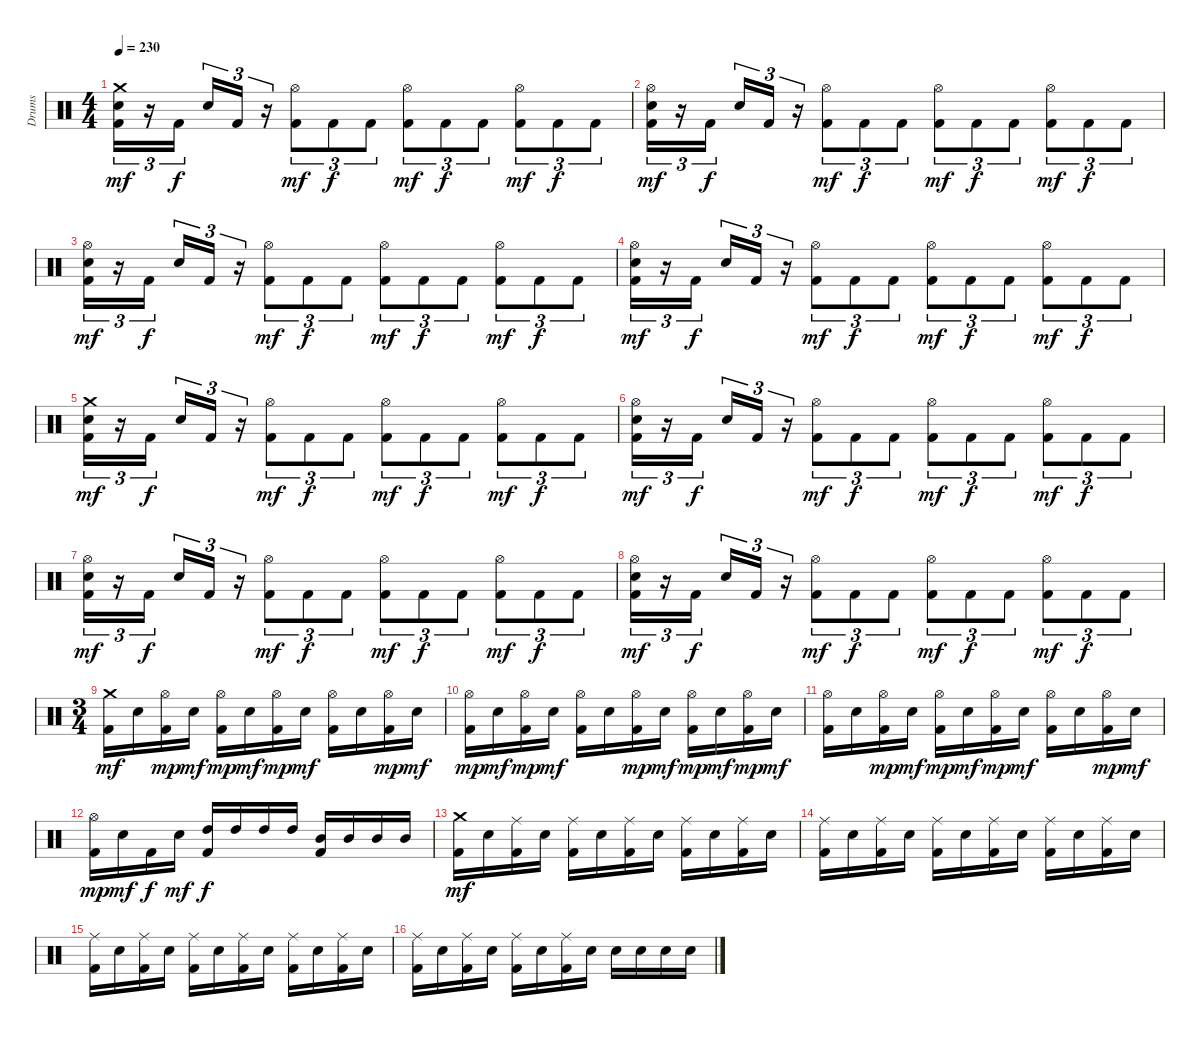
\track ("Drums" "Drums") {instrument percussion}
\staff {score}
\articulation defaults
\ts (4 4)
\tempo 230
\clef neutral
\ks c
("Crash medium (hit)" "Electric Snare (hit)" "Kick (hit) 2").16{tu (3 2) dy mf} r.16{tu (3 2)} "Kick (hit) 2".16{tu (3 2) dy f beam splitsecondary} "Electric Snare (hit)".16{tu (3 2)} "Kick (hit) 2".16{tu (3 2)} r.16{tu (3 2)} ("Hi-Hat (open)" "Kick (hit) 2").8{tu (3 2) dy mf} "Kick (hit) 2".8{tu (3 2) dy f} "Kick (hit) 2".8{tu (3 2)} ("Hi-Hat (open)" "Kick (hit) 2").8{tu (3 2) dy mf} "Kick (hit) 2".8{tu (3 2) dy f} "Kick (hit) 2".8{tu (3 2)} ("Hi-Hat (open)" "Kick (hit) 2").8{tu (3 2) dy mf} "Kick (hit) 2".8{tu (3 2) dy f} "Kick (hit) 2".8{tu (3 2)} |
("Hi-Hat (open)" "Electric Snare (hit)" "Kick (hit) 2").16{tu (3 2) dy mf} r.16{tu (3 2)} "Kick (hit) 2".16{tu (3 2) dy f beam splitsecondary} "Electric Snare (hit)".16{tu (3 2)} "Kick (hit) 2".16{tu (3 2)} r.16{tu (3 2)} ("Hi-Hat (open)" "Kick (hit) 2").8{tu (3 2) dy mf} "Kick (hit) 2".8{tu (3 2) dy f} "Kick (hit) 2".8{tu (3 2)} ("Hi-Hat (open)" "Kick (hit) 2").8{tu (3 2) dy mf} "Kick (hit) 2".8{tu (3 2) dy f} "Kick (hit) 2".8{tu (3 2)} ("Hi-Hat (open)" "Kick (hit) 2").8{tu (3 2) dy mf} "Kick (hit) 2".8{tu (3 2) dy f} "Kick (hit) 2".8{tu (3 2)} |
("Hi-Hat (open)" "Electric Snare (hit)" "Kick (hit) 2").16{tu (3 2) dy mf} r.16{tu (3 2)} "Kick (hit) 2".16{tu (3 2) dy f beam splitsecondary} "Electric Snare (hit)".16{tu (3 2)} "Kick (hit) 2".16{tu (3 2)} r.16{tu (3 2)} ("Hi-Hat (open)" "Kick (hit) 2").8{tu (3 2) dy mf} "Kick (hit) 2".8{tu (3 2) dy f} "Kick (hit) 2".8{tu (3 2)} ("Hi-Hat (open)" "Kick (hit) 2").8{tu (3 2) dy mf} "Kick (hit) 2".8{tu (3 2) dy f} "Kick (hit) 2".8{tu (3 2)} ("Hi-Hat (open)" "Kick (hit) 2").8{tu (3 2) dy mf} "Kick (hit) 2".8{tu (3 2) dy f} "Kick (hit) 2".8{tu (3 2)} |
("Hi-Hat (open)" "Electric Snare (hit)" "Kick (hit) 2").16{tu (3 2) dy mf} r.16{tu (3 2)} "Kick (hit) 2".16{tu (3 2) dy f beam splitsecondary} "Electric Snare (hit)".16{tu (3 2)} "Kick (hit) 2".16{tu (3 2)} r.16{tu (3 2)} ("Hi-Hat (open)" "Kick (hit) 2").8{tu (3 2) dy mf} "Kick (hit) 2".8{tu (3 2) dy f} "Kick (hit) 2".8{tu (3 2)} ("Hi-Hat (open)" "Kick (hit) 2").8{tu (3 2) dy mf} "Kick (hit) 2".8{tu (3 2) dy f} "Kick (hit) 2".8{tu (3 2)} ("Hi-Hat (open)" "Kick (hit) 2").8{tu (3 2) dy mf} "Kick (hit) 2".8{tu (3 2) dy f} "Kick (hit) 2".8{tu (3 2)} |
("Crash medium (hit)" "Electric Snare (hit)" "Kick (hit) 2").16{tu (3 2) dy mf} r.16{tu (3 2)} "Kick (hit) 2".16{tu (3 2) dy f beam splitsecondary} "Electric Snare (hit)".16{tu (3 2)} "Kick (hit) 2".16{tu (3 2)} r.16{tu (3 2)} ("Hi-Hat (open)" "Kick (hit) 2").8{tu (3 2) dy mf} "Kick (hit) 2".8{tu (3 2) dy f} "Kick (hit) 2".8{tu (3 2)} ("Hi-Hat (open)" "Kick (hit) 2").8{tu (3 2) dy mf} "Kick (hit) 2".8{tu (3 2) dy f} "Kick (hit) 2".8{tu (3 2)} ("Hi-Hat (open)" "Kick (hit) 2").8{tu (3 2) dy mf} "Kick (hit) 2".8{tu (3 2) dy f} "Kick (hit) 2".8{tu (3 2)} |
("Hi-Hat (open)" "Electric Snare (hit)" "Kick (hit) 2").16{tu (3 2) dy mf} r.16{tu (3 2)} "Kick (hit) 2".16{tu (3 2) dy f beam splitsecondary} "Electric Snare (hit)".16{tu (3 2)} "Kick (hit) 2".16{tu (3 2)} r.16{tu (3 2)} ("Hi-Hat (open)" "Kick (hit) 2").8{tu (3 2) dy mf} "Kick (hit) 2".8{tu (3 2) dy f} "Kick (hit) 2".8{tu (3 2)} ("Hi-Hat (open)" "Kick (hit) 2").8{tu (3 2) dy mf} "Kick (hit) 2".8{tu (3 2) dy f} "Kick (hit) 2".8{tu (3 2)} ("Hi-Hat (open)" "Kick (hit) 2").8{tu (3 2) dy mf} "Kick (hit) 2".8{tu (3 2) dy f} "Kick (hit) 2".8{tu (3 2)} |
("Hi-Hat (open)" "Electric Snare (hit)" "Kick (hit) 2").16{tu (3 2) dy mf} r.16{tu (3 2)} "Kick (hit) 2".16{tu (3 2) dy f beam splitsecondary} "Electric Snare (hit)".16{tu (3 2)} "Kick (hit) 2".16{tu (3 2)} r.16{tu (3 2)} ("Hi-Hat (open)" "Kick (hit) 2").8{tu (3 2) dy mf} "Kick (hit) 2".8{tu (3 2) dy f} "Kick (hit) 2".8{tu (3 2)} ("Hi-Hat (open)" "Kick (hit) 2").8{tu (3 2) dy mf} "Kick (hit) 2".8{tu (3 2) dy f} "Kick (hit) 2".8{tu (3 2)} ("Hi-Hat (open)" "Kick (hit) 2").8{tu (3 2) dy mf} "Kick (hit) 2".8{tu (3 2) dy f} "Kick (hit) 2".8{tu (3 2)} |
("Hi-Hat (open)" "Electric Snare (hit)" "Kick (hit) 2").16{tu (3 2) dy mf} r.16{tu (3 2)} "Kick (hit) 2".16{tu (3 2) dy f beam splitsecondary} "Electric Snare (hit)".16{tu (3 2)} "Kick (hit) 2".16{tu (3 2)} r.16{tu (3 2)} ("Hi-Hat (open)" "Kick (hit) 2").8{tu (3 2) dy mf} "Kick (hit) 2".8{tu (3 2) dy f} "Kick (hit) 2".8{tu (3 2)} ("Hi-Hat (open)" "Kick (hit) 2").8{tu (3 2) dy mf} "Kick (hit) 2".8{tu (3 2) dy f} "Kick (hit) 2".8{tu (3 2)} ("Hi-Hat (open)" "Kick (hit) 2").8{tu (3 2) dy mf} "Kick (hit) 2".8{tu (3 2) dy f} "Kick (hit) 2".8{tu (3 2)} |
\ts (3 4)
("Crash medium (hit)" "Kick (hit) 2").16{dy mf} "Electric Snare (hit)".16 ("Hi-Hat (open)" "Kick (hit) 2").16{dy mp} "Electric Snare (hit)".16{dy mf} ("Hi-Hat (open)" "Kick (hit) 2").16{dy mp} "Electric Snare (hit)".16{dy mf} ("Hi-Hat (open)" "Kick (hit) 2").16{dy mp} "Electric Snare (hit)".16{dy mf} ("Hi-Hat (open)" "Kick (hit) 2").16 "Electric Snare (hit)".16 ("Hi-Hat (open)" "Kick (hit) 2").16{dy mp} "Electric Snare (hit)".16{dy mf} |
("Hi-Hat (open)" "Kick (hit) 2").16{dy mp} "Electric Snare (hit)".16{dy mf} ("Hi-Hat (open)" "Kick (hit) 2").16{dy mp} "Electric Snare (hit)".16{dy mf} ("Hi-Hat (open)" "Kick (hit) 2").16 "Electric Snare (hit)".16 ("Hi-Hat (open)" "Kick (hit) 2").16{dy mp} "Electric Snare (hit)".16{dy mf} ("Hi-Hat (open)" "Kick (hit) 2").16{dy mp} "Electric Snare (hit)".16{dy mf} ("Hi-Hat (open)" "Kick (hit) 2").16{dy mp} "Electric Snare (hit)".16{dy mf} |
("Hi-Hat (open)" "Kick (hit) 2").16 "Electric Snare (hit)".16 ("Hi-Hat (open)" "Kick (hit) 2").16{dy mp} "Electric Snare (hit)".16{dy mf} ("Hi-Hat (open)" "Kick (hit) 2").16{dy mp} "Electric Snare (hit)".16{dy mf} ("Hi-Hat (open)" "Kick (hit) 2").16{dy mp} "Electric Snare (hit)".16{dy mf} ("Hi-Hat (open)" "Kick (hit) 2").16 "Electric Snare (hit)".16 ("Hi-Hat (open)" "Kick (hit) 2").16{dy mp} "Electric Snare (hit)".16{dy mf} |
("Hi-Hat (open)" "Kick (hit) 2").16{dy mp} "Electric Snare (hit)".16{dy mf} "Kick (hit) 2".16{dy f} "Electric Snare (hit)".16{dy mf} ("High Tom (hit)" "Kick (hit) 2").16{dy f} "High Tom (hit)".16 "High Tom (hit)".16 "High Tom (hit)".16 ("Mid Tom (hit)" "Kick (hit) 2").16 "Mid Tom (hit)".16 "Mid Tom (hit)".16 "Mid Tom (hit)".16 |
("Crash medium (hit)" "Kick (hit) 2").16{dy mf} "Electric Snare (hit)".16 ("Ride (middle)" "Kick (hit) 2").16 "Electric Snare (hit)".16 ("Ride (middle)" "Kick (hit) 2").16 "Electric Snare (hit)".16 ("Ride (middle)" "Kick (hit) 2").16 "Electric Snare (hit)".16 ("Ride (middle)" "Kick (hit) 2").16 "Electric Snare (hit)".16 ("Ride (middle)" "Kick (hit) 2").16 "Electric Snare (hit)".16 |
("Ride (middle)" "Kick (hit) 2").16 "Electric Snare (hit)".16 ("Ride (middle)" "Kick (hit) 2").16 "Electric Snare (hit)".16 ("Ride (middle)" "Kick (hit) 2").16 "Electric Snare (hit)".16 ("Ride (middle)" "Kick (hit) 2").16 "Electric Snare (hit)".16 ("Ride (middle)" "Kick (hit) 2").16 "Electric Snare (hit)".16 ("Ride (middle)" "Kick (hit) 2").16 "Electric Snare (hit)".16 |
("Ride (middle)" "Kick (hit) 2").16 "Electric Snare (hit)".16 ("Ride (middle)" "Kick (hit) 2").16 "Electric Snare (hit)".16 ("Ride (middle)" "Kick (hit) 2").16 "Electric Snare (hit)".16 ("Ride (middle)" "Kick (hit) 2").16 "Electric Snare (hit)".16 ("Ride (middle)" "Kick (hit) 2").16 "Electric Snare (hit)".16 ("Ride (middle)" "Kick (hit) 2").16 "Electric Snare (hit)".16 |
("Ride (middle)" "Kick (hit) 2").16 "Electric Snare (hit)".16 ("Ride (middle)" "Kick (hit) 2").16 "Electric Snare (hit)".16 ("Ride (middle)" "Kick (hit) 2").16 "Electric Snare (hit)".16 ("Ride (middle)" "Kick (hit) 2").16 "Electric Snare (hit)".16 "Electric Snare (hit)".16 "Electric Snare (hit)".16 "Electric Snare (hit)".16 "Electric Snare (hit)".16
